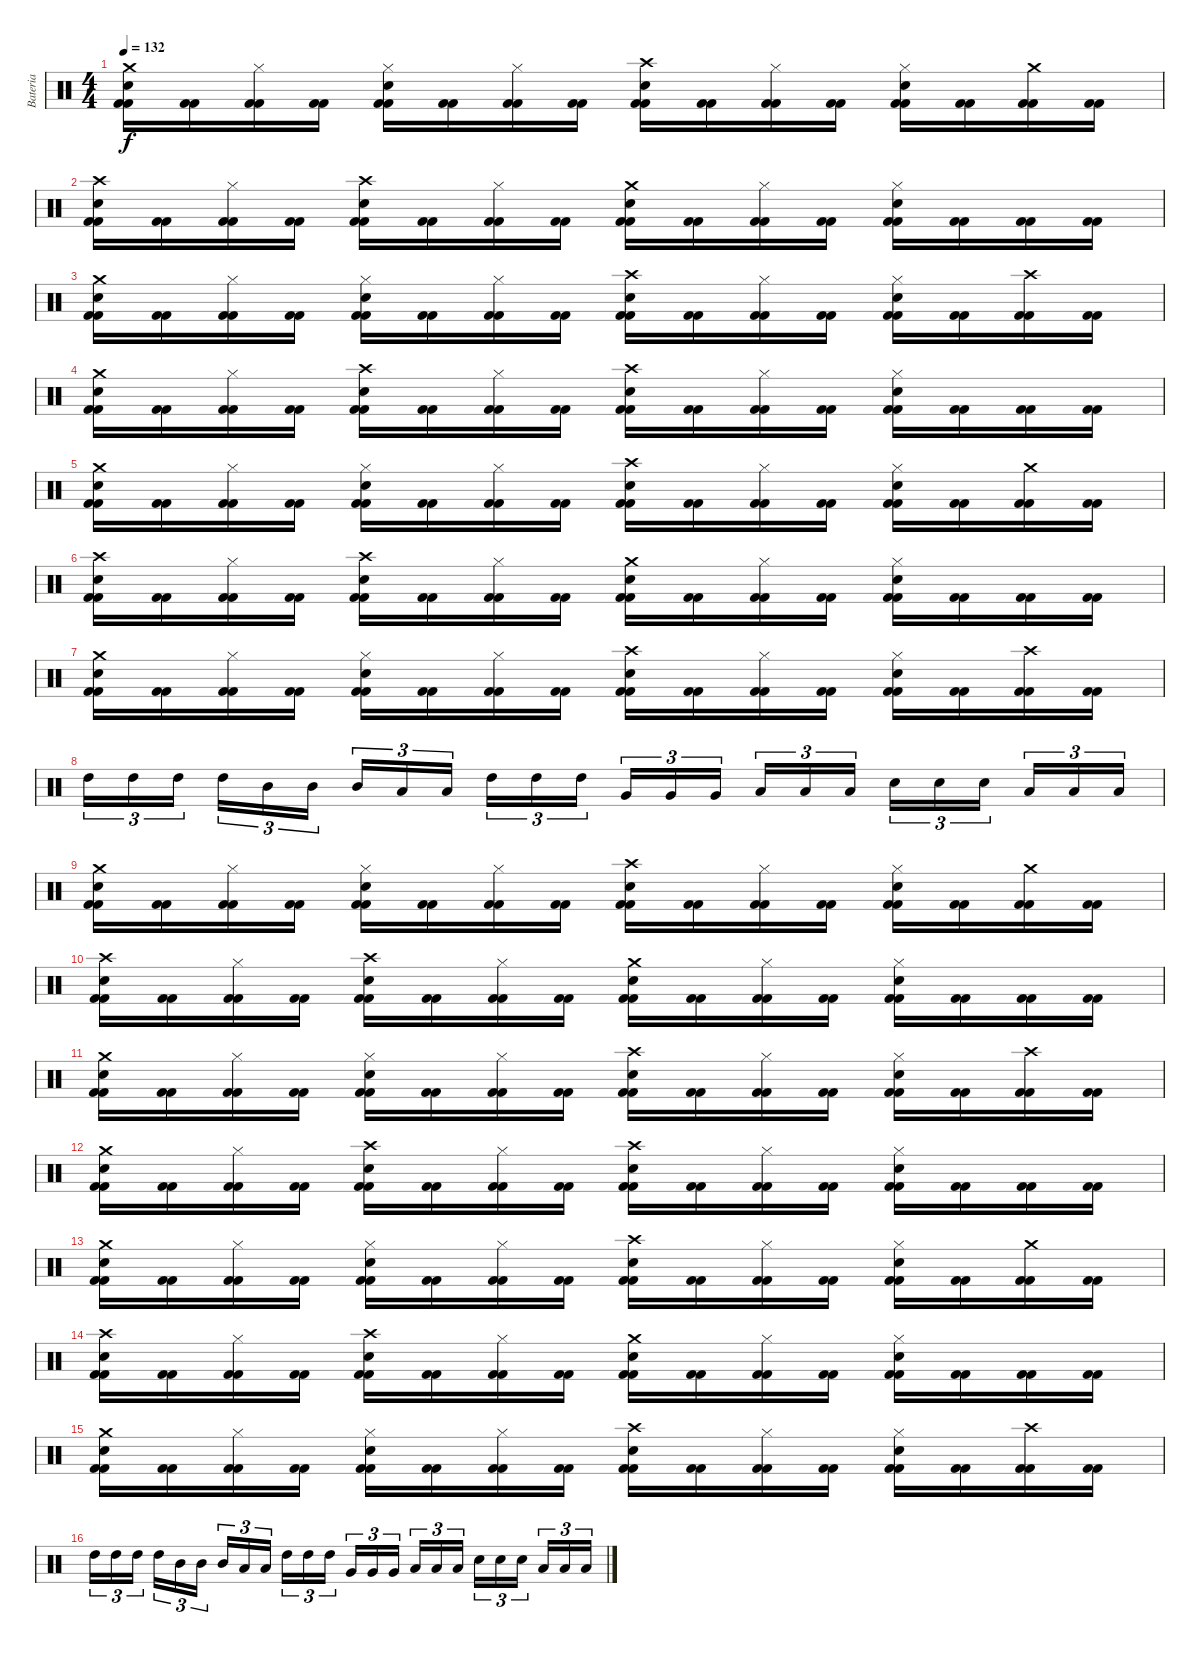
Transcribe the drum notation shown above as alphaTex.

\track ("Bateria" "Bateria") {instrument percussion}
\staff {score}
\articulation defaults
\ts (4 4)
\tempo 132
\clef neutral
\ks c
("Kick (hit) 2" "Kick (hit) 2" "Snare (hit) 2" "Crash medium (hit)").16{dy f} ("Kick (hit) 2" "Kick (hit) 2").16 ("Kick (hit) 2" "Kick (hit) 2" "Hi-Hat (closed)").16 ("Kick (hit) 2" "Kick (hit) 2").16 ("Kick (hit) 2" "Kick (hit) 2" "Snare (hit) 2" "Hi-Hat (closed)").16 ("Kick (hit) 2" "Kick (hit) 2").16 ("Kick (hit) 2" "Kick (hit) 2" "Hi-Hat (closed)").16 ("Kick (hit) 2" "Kick (hit) 2").16 ("Kick (hit) 2" "Kick (hit) 2" "Snare (hit) 2" "Crash high (hit)").16 ("Kick (hit) 2" "Kick (hit) 2").16 ("Kick (hit) 2" "Kick (hit) 2" "Hi-Hat (closed)").16 ("Kick (hit) 2" "Kick (hit) 2").16 ("Kick (hit) 2" "Kick (hit) 2" "Snare (hit) 2" "Hi-Hat (closed)").16 ("Kick (hit) 2" "Kick (hit) 2").16 ("Kick (hit) 2" "Kick (hit) 2" "Crash medium (hit)").16 ("Kick (hit) 2" "Kick (hit) 2").16 |
("Kick (hit) 2" "Kick (hit) 2" "Snare (hit) 2" "Crash high (hit)").16 ("Kick (hit) 2" "Kick (hit) 2").16 ("Kick (hit) 2" "Kick (hit) 2" "Hi-Hat (closed)").16 ("Kick (hit) 2" "Kick (hit) 2").16 ("Kick (hit) 2" "Kick (hit) 2" "Snare (hit) 2" "Crash high (hit)").16 ("Kick (hit) 2" "Kick (hit) 2").16 ("Kick (hit) 2" "Kick (hit) 2" "Hi-Hat (closed)").16 ("Kick (hit) 2" "Kick (hit) 2").16 ("Kick (hit) 2" "Kick (hit) 2" "Snare (hit) 2" "Crash medium (hit)").16 ("Kick (hit) 2" "Kick (hit) 2").16 ("Kick (hit) 2" "Kick (hit) 2" "Hi-Hat (closed)").16 ("Kick (hit) 2" "Kick (hit) 2").16 ("Kick (hit) 2" "Kick (hit) 2" "Snare (hit) 2" "Hi-Hat (closed)").16 ("Kick (hit) 2" "Kick (hit) 2").16 ("Kick (hit) 2" "Kick (hit) 2").16 ("Kick (hit) 2" "Kick (hit) 2").16 |
("Kick (hit) 2" "Kick (hit) 2" "Snare (hit) 2" "Crash medium (hit)").16 ("Kick (hit) 2" "Kick (hit) 2").16 ("Kick (hit) 2" "Kick (hit) 2" "Hi-Hat (closed)").16 ("Kick (hit) 2" "Kick (hit) 2").16 ("Kick (hit) 2" "Kick (hit) 2" "Snare (hit) 2" "Hi-Hat (closed)").16 ("Kick (hit) 2" "Kick (hit) 2").16 ("Kick (hit) 2" "Kick (hit) 2" "Hi-Hat (closed)").16 ("Kick (hit) 2" "Kick (hit) 2").16 ("Kick (hit) 2" "Kick (hit) 2" "Snare (hit) 2" "Crash high (hit)").16 ("Kick (hit) 2" "Kick (hit) 2").16 ("Kick (hit) 2" "Kick (hit) 2" "Hi-Hat (closed)").16 ("Kick (hit) 2" "Kick (hit) 2").16 ("Kick (hit) 2" "Kick (hit) 2" "Snare (hit) 2" "Hi-Hat (closed)").16 ("Kick (hit) 2" "Kick (hit) 2").16 ("Kick (hit) 2" "Kick (hit) 2" "Crash high (hit)").16 ("Kick (hit) 2" "Kick (hit) 2").16 |
("Kick (hit) 2" "Kick (hit) 2" "Snare (hit) 2" "Crash medium (hit)").16 ("Kick (hit) 2" "Kick (hit) 2").16 ("Kick (hit) 2" "Kick (hit) 2" "Hi-Hat (closed)").16 ("Kick (hit) 2" "Kick (hit) 2").16 ("Kick (hit) 2" "Kick (hit) 2" "Snare (hit) 2" "Crash high (hit)").16 ("Kick (hit) 2" "Kick (hit) 2").16 ("Kick (hit) 2" "Kick (hit) 2" "Hi-Hat (closed)").16 ("Kick (hit) 2" "Kick (hit) 2").16 ("Kick (hit) 2" "Kick (hit) 2" "Snare (hit) 2" "Crash high (hit)").16 ("Kick (hit) 2" "Kick (hit) 2").16 ("Kick (hit) 2" "Kick (hit) 2" "Hi-Hat (closed)").16 ("Kick (hit) 2" "Kick (hit) 2").16 ("Kick (hit) 2" "Kick (hit) 2" "Snare (hit) 2" "Hi-Hat (closed)").16 ("Kick (hit) 2" "Kick (hit) 2").16 ("Kick (hit) 2" "Kick (hit) 2").16 ("Kick (hit) 2" "Kick (hit) 2").16 |
("Kick (hit) 2" "Kick (hit) 2" "Snare (hit) 2" "Crash medium (hit)").16 ("Kick (hit) 2" "Kick (hit) 2").16 ("Kick (hit) 2" "Kick (hit) 2" "Hi-Hat (closed)").16 ("Kick (hit) 2" "Kick (hit) 2").16 ("Kick (hit) 2" "Kick (hit) 2" "Snare (hit) 2" "Hi-Hat (closed)").16 ("Kick (hit) 2" "Kick (hit) 2").16 ("Kick (hit) 2" "Kick (hit) 2" "Hi-Hat (closed)").16 ("Kick (hit) 2" "Kick (hit) 2").16 ("Kick (hit) 2" "Kick (hit) 2" "Snare (hit) 2" "Crash high (hit)").16 ("Kick (hit) 2" "Kick (hit) 2").16 ("Kick (hit) 2" "Kick (hit) 2" "Hi-Hat (closed)").16 ("Kick (hit) 2" "Kick (hit) 2").16 ("Kick (hit) 2" "Kick (hit) 2" "Snare (hit) 2" "Hi-Hat (closed)").16 ("Kick (hit) 2" "Kick (hit) 2").16 ("Kick (hit) 2" "Kick (hit) 2" "Crash medium (hit)").16 ("Kick (hit) 2" "Kick (hit) 2").16 |
("Kick (hit) 2" "Kick (hit) 2" "Snare (hit) 2" "Crash high (hit)").16 ("Kick (hit) 2" "Kick (hit) 2").16 ("Kick (hit) 2" "Kick (hit) 2" "Hi-Hat (closed)").16 ("Kick (hit) 2" "Kick (hit) 2").16 ("Kick (hit) 2" "Kick (hit) 2" "Snare (hit) 2" "Crash high (hit)").16 ("Kick (hit) 2" "Kick (hit) 2").16 ("Kick (hit) 2" "Kick (hit) 2" "Hi-Hat (closed)").16 ("Kick (hit) 2" "Kick (hit) 2").16 ("Kick (hit) 2" "Kick (hit) 2" "Snare (hit) 2" "Crash medium (hit)").16 ("Kick (hit) 2" "Kick (hit) 2").16 ("Kick (hit) 2" "Kick (hit) 2" "Hi-Hat (closed)").16 ("Kick (hit) 2" "Kick (hit) 2").16 ("Kick (hit) 2" "Kick (hit) 2" "Snare (hit) 2" "Hi-Hat (closed)").16 ("Kick (hit) 2" "Kick (hit) 2").16 ("Kick (hit) 2" "Kick (hit) 2").16 ("Kick (hit) 2" "Kick (hit) 2").16 |
("Kick (hit) 2" "Kick (hit) 2" "Snare (hit) 2" "Crash medium (hit)").16 ("Kick (hit) 2" "Kick (hit) 2").16 ("Kick (hit) 2" "Kick (hit) 2" "Hi-Hat (closed)").16 ("Kick (hit) 2" "Kick (hit) 2").16 ("Kick (hit) 2" "Kick (hit) 2" "Snare (hit) 2" "Hi-Hat (closed)").16 ("Kick (hit) 2" "Kick (hit) 2").16 ("Kick (hit) 2" "Kick (hit) 2" "Hi-Hat (closed)").16 ("Kick (hit) 2" "Kick (hit) 2").16 ("Kick (hit) 2" "Kick (hit) 2" "Snare (hit) 2" "Crash high (hit)").16 ("Kick (hit) 2" "Kick (hit) 2").16 ("Kick (hit) 2" "Kick (hit) 2" "Hi-Hat (closed)").16 ("Kick (hit) 2" "Kick (hit) 2").16 ("Kick (hit) 2" "Kick (hit) 2" "Snare (hit) 2" "Hi-Hat (closed)").16 ("Kick (hit) 2" "Kick (hit) 2").16 ("Kick (hit) 2" "Kick (hit) 2" "Crash high (hit)").16 ("Kick (hit) 2" "Kick (hit) 2").16 |
"High Tom (hit)".16{tu (3 2)} "High Tom (hit)".16{tu (3 2)} "High Tom (hit)".16{tu (3 2)} "High Tom (hit)".16{tu (3 2)} "Mid Tom (hit)".16{tu (3 2)} "Mid Tom (hit)".16{tu (3 2)} "Mid Tom (hit)".16{tu (3 2)} "Low Tom (hit)".16{tu (3 2)} "Low Tom (hit)".16{tu (3 2)} "High Tom (hit)".16{tu (3 2)} "High Tom (hit)".16{tu (3 2)} "High Tom (hit)".16{tu (3 2)} "Very Low Tom (hit)".16{tu (3 2)} "Very Low Tom (hit)".16{tu (3 2)} "Very Low Tom (hit)".16{tu (3 2)} "Low Floor Tom (hit)".16{tu (3 2)} "Low Floor Tom (hit)".16{tu (3 2)} "Low Floor Tom (hit)".16{tu (3 2)} "Snare (hit) 2".16{tu (3 2)} "Snare (hit) 2".16{tu (3 2)} "Snare (hit) 2".16{tu (3 2)} "Low Tom (hit)".16{tu (3 2)} "Low Tom (hit)".16{tu (3 2)} "Low Tom (hit)".16{tu (3 2)} |
("Kick (hit) 2" "Kick (hit) 2" "Snare (hit) 2" "Crash medium (hit)").16 ("Kick (hit) 2" "Kick (hit) 2").16 ("Kick (hit) 2" "Kick (hit) 2" "Hi-Hat (closed)").16 ("Kick (hit) 2" "Kick (hit) 2").16 ("Kick (hit) 2" "Kick (hit) 2" "Snare (hit) 2" "Hi-Hat (closed)").16 ("Kick (hit) 2" "Kick (hit) 2").16 ("Kick (hit) 2" "Kick (hit) 2" "Hi-Hat (closed)").16 ("Kick (hit) 2" "Kick (hit) 2").16 ("Kick (hit) 2" "Kick (hit) 2" "Snare (hit) 2" "Crash high (hit)").16 ("Kick (hit) 2" "Kick (hit) 2").16 ("Kick (hit) 2" "Kick (hit) 2" "Hi-Hat (closed)").16 ("Kick (hit) 2" "Kick (hit) 2").16 ("Kick (hit) 2" "Kick (hit) 2" "Snare (hit) 2" "Hi-Hat (closed)").16 ("Kick (hit) 2" "Kick (hit) 2").16 ("Kick (hit) 2" "Kick (hit) 2" "Crash medium (hit)").16 ("Kick (hit) 2" "Kick (hit) 2").16 |
("Kick (hit) 2" "Kick (hit) 2" "Snare (hit) 2" "Crash high (hit)").16 ("Kick (hit) 2" "Kick (hit) 2").16 ("Kick (hit) 2" "Kick (hit) 2" "Hi-Hat (closed)").16 ("Kick (hit) 2" "Kick (hit) 2").16 ("Kick (hit) 2" "Kick (hit) 2" "Snare (hit) 2" "Crash high (hit)").16 ("Kick (hit) 2" "Kick (hit) 2").16 ("Kick (hit) 2" "Kick (hit) 2" "Hi-Hat (closed)").16 ("Kick (hit) 2" "Kick (hit) 2").16 ("Kick (hit) 2" "Kick (hit) 2" "Snare (hit) 2" "Crash medium (hit)").16 ("Kick (hit) 2" "Kick (hit) 2").16 ("Kick (hit) 2" "Kick (hit) 2" "Hi-Hat (closed)").16 ("Kick (hit) 2" "Kick (hit) 2").16 ("Kick (hit) 2" "Kick (hit) 2" "Snare (hit) 2" "Hi-Hat (closed)").16 ("Kick (hit) 2" "Kick (hit) 2").16 ("Kick (hit) 2" "Kick (hit) 2").16 ("Kick (hit) 2" "Kick (hit) 2").16 |
("Kick (hit) 2" "Kick (hit) 2" "Snare (hit) 2" "Crash medium (hit)").16 ("Kick (hit) 2" "Kick (hit) 2").16 ("Kick (hit) 2" "Kick (hit) 2" "Hi-Hat (closed)").16 ("Kick (hit) 2" "Kick (hit) 2").16 ("Kick (hit) 2" "Kick (hit) 2" "Snare (hit) 2" "Hi-Hat (closed)").16 ("Kick (hit) 2" "Kick (hit) 2").16 ("Kick (hit) 2" "Kick (hit) 2" "Hi-Hat (closed)").16 ("Kick (hit) 2" "Kick (hit) 2").16 ("Kick (hit) 2" "Kick (hit) 2" "Snare (hit) 2" "Crash high (hit)").16 ("Kick (hit) 2" "Kick (hit) 2").16 ("Kick (hit) 2" "Kick (hit) 2" "Hi-Hat (closed)").16 ("Kick (hit) 2" "Kick (hit) 2").16 ("Kick (hit) 2" "Kick (hit) 2" "Snare (hit) 2" "Hi-Hat (closed)").16 ("Kick (hit) 2" "Kick (hit) 2").16 ("Kick (hit) 2" "Kick (hit) 2" "Crash high (hit)").16 ("Kick (hit) 2" "Kick (hit) 2").16 |
("Kick (hit) 2" "Kick (hit) 2" "Snare (hit) 2" "Crash medium (hit)").16 ("Kick (hit) 2" "Kick (hit) 2").16 ("Kick (hit) 2" "Kick (hit) 2" "Hi-Hat (closed)").16 ("Kick (hit) 2" "Kick (hit) 2").16 ("Kick (hit) 2" "Kick (hit) 2" "Snare (hit) 2" "Crash high (hit)").16 ("Kick (hit) 2" "Kick (hit) 2").16 ("Kick (hit) 2" "Kick (hit) 2" "Hi-Hat (closed)").16 ("Kick (hit) 2" "Kick (hit) 2").16 ("Kick (hit) 2" "Kick (hit) 2" "Snare (hit) 2" "Crash high (hit)").16 ("Kick (hit) 2" "Kick (hit) 2").16 ("Kick (hit) 2" "Kick (hit) 2" "Hi-Hat (closed)").16 ("Kick (hit) 2" "Kick (hit) 2").16 ("Kick (hit) 2" "Kick (hit) 2" "Snare (hit) 2" "Hi-Hat (closed)").16 ("Kick (hit) 2" "Kick (hit) 2").16 ("Kick (hit) 2" "Kick (hit) 2").16 ("Kick (hit) 2" "Kick (hit) 2").16 |
("Kick (hit) 2" "Kick (hit) 2" "Snare (hit) 2" "Crash medium (hit)").16 ("Kick (hit) 2" "Kick (hit) 2").16 ("Kick (hit) 2" "Kick (hit) 2" "Hi-Hat (closed)").16 ("Kick (hit) 2" "Kick (hit) 2").16 ("Kick (hit) 2" "Kick (hit) 2" "Snare (hit) 2" "Hi-Hat (closed)").16 ("Kick (hit) 2" "Kick (hit) 2").16 ("Kick (hit) 2" "Kick (hit) 2" "Hi-Hat (closed)").16 ("Kick (hit) 2" "Kick (hit) 2").16 ("Kick (hit) 2" "Kick (hit) 2" "Snare (hit) 2" "Crash high (hit)").16 ("Kick (hit) 2" "Kick (hit) 2").16 ("Kick (hit) 2" "Kick (hit) 2" "Hi-Hat (closed)").16 ("Kick (hit) 2" "Kick (hit) 2").16 ("Kick (hit) 2" "Kick (hit) 2" "Snare (hit) 2" "Hi-Hat (closed)").16 ("Kick (hit) 2" "Kick (hit) 2").16 ("Kick (hit) 2" "Kick (hit) 2" "Crash medium (hit)").16 ("Kick (hit) 2" "Kick (hit) 2").16 |
("Kick (hit) 2" "Kick (hit) 2" "Snare (hit) 2" "Crash high (hit)").16 ("Kick (hit) 2" "Kick (hit) 2").16 ("Kick (hit) 2" "Kick (hit) 2" "Hi-Hat (closed)").16 ("Kick (hit) 2" "Kick (hit) 2").16 ("Kick (hit) 2" "Kick (hit) 2" "Snare (hit) 2" "Crash high (hit)").16 ("Kick (hit) 2" "Kick (hit) 2").16 ("Kick (hit) 2" "Kick (hit) 2" "Hi-Hat (closed)").16 ("Kick (hit) 2" "Kick (hit) 2").16 ("Kick (hit) 2" "Kick (hit) 2" "Snare (hit) 2" "Crash medium (hit)").16 ("Kick (hit) 2" "Kick (hit) 2").16 ("Kick (hit) 2" "Kick (hit) 2" "Hi-Hat (closed)").16 ("Kick (hit) 2" "Kick (hit) 2").16 ("Kick (hit) 2" "Kick (hit) 2" "Snare (hit) 2" "Hi-Hat (closed)").16 ("Kick (hit) 2" "Kick (hit) 2").16 ("Kick (hit) 2" "Kick (hit) 2").16 ("Kick (hit) 2" "Kick (hit) 2").16 |
("Kick (hit) 2" "Kick (hit) 2" "Snare (hit) 2" "Crash medium (hit)").16 ("Kick (hit) 2" "Kick (hit) 2").16 ("Kick (hit) 2" "Kick (hit) 2" "Hi-Hat (closed)").16 ("Kick (hit) 2" "Kick (hit) 2").16 ("Kick (hit) 2" "Kick (hit) 2" "Snare (hit) 2" "Hi-Hat (closed)").16 ("Kick (hit) 2" "Kick (hit) 2").16 ("Kick (hit) 2" "Kick (hit) 2" "Hi-Hat (closed)").16 ("Kick (hit) 2" "Kick (hit) 2").16 ("Kick (hit) 2" "Kick (hit) 2" "Snare (hit) 2" "Crash high (hit)").16 ("Kick (hit) 2" "Kick (hit) 2").16 ("Kick (hit) 2" "Kick (hit) 2" "Hi-Hat (closed)").16 ("Kick (hit) 2" "Kick (hit) 2").16 ("Kick (hit) 2" "Kick (hit) 2" "Snare (hit) 2" "Hi-Hat (closed)").16 ("Kick (hit) 2" "Kick (hit) 2").16 ("Kick (hit) 2" "Kick (hit) 2" "Crash high (hit)").16 ("Kick (hit) 2" "Kick (hit) 2").16 |
"High Tom (hit)".16{tu (3 2)} "High Tom (hit)".16{tu (3 2)} "High Tom (hit)".16{tu (3 2)} "High Tom (hit)".16{tu (3 2)} "Mid Tom (hit)".16{tu (3 2)} "Mid Tom (hit)".16{tu (3 2)} "Mid Tom (hit)".16{tu (3 2)} "Low Tom (hit)".16{tu (3 2)} "Low Tom (hit)".16{tu (3 2)} "High Tom (hit)".16{tu (3 2)} "High Tom (hit)".16{tu (3 2)} "High Tom (hit)".16{tu (3 2)} "Very Low Tom (hit)".16{tu (3 2)} "Very Low Tom (hit)".16{tu (3 2)} "Very Low Tom (hit)".16{tu (3 2)} "Low Floor Tom (hit)".16{tu (3 2)} "Low Floor Tom (hit)".16{tu (3 2)} "Low Floor Tom (hit)".16{tu (3 2)} "Snare (hit) 2".16{tu (3 2)} "Snare (hit) 2".16{tu (3 2)} "Snare (hit) 2".16{tu (3 2)} "Low Tom (hit)".16{tu (3 2)} "Low Tom (hit)".16{tu (3 2)} "Low Tom (hit)".16{tu (3 2)}
